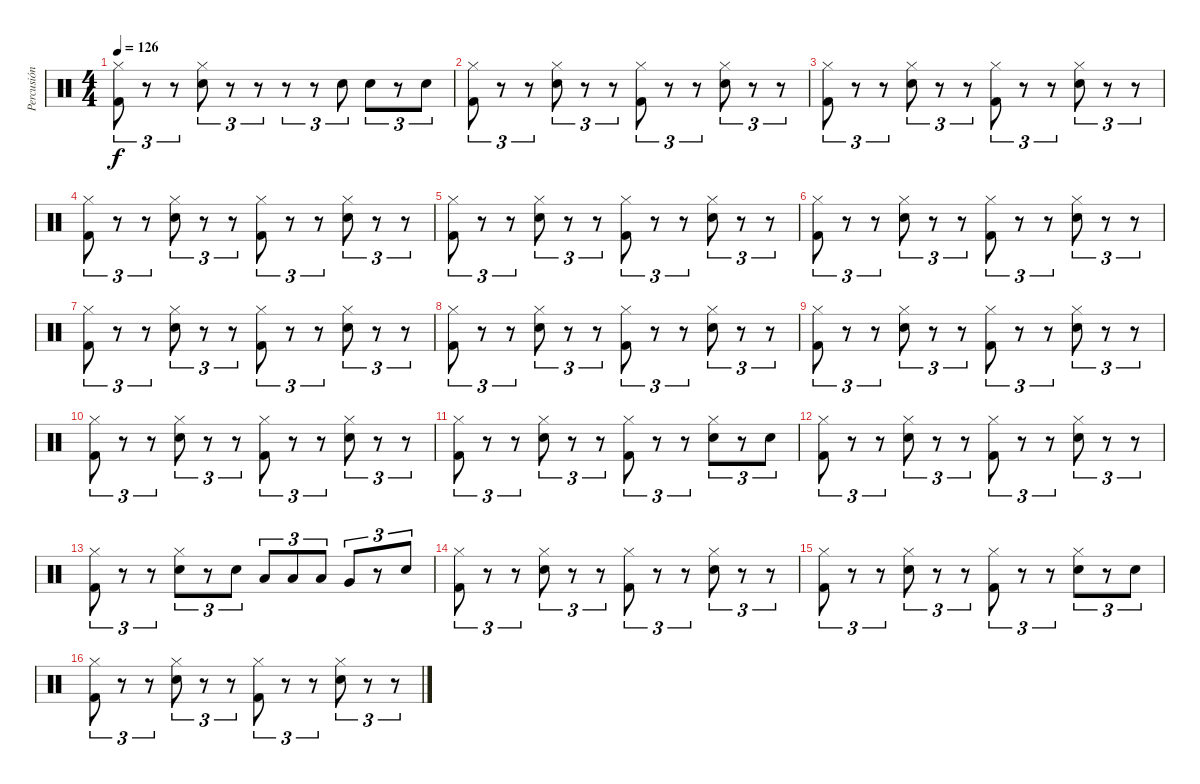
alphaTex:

\track ("Percusión" "Percusión") {instrument percussion}
\staff {score}
\articulation defaults
\ts (4 4)
\tempo 126
\clef neutral
\ks c
("Hi-Hat (closed)" "Kick (hit) 2").8{tu (3 2) dy f} r.8{tu (3 2)} r.8{tu (3 2)} ("Hi-Hat (closed)" "Electric Snare (hit)").8{tu (3 2)} r.8{tu (3 2)} r.8{tu (3 2)} r.8{tu (3 2)} r.8{tu (3 2)} "Electric Snare (hit)".8{tu (3 2)} "Electric Snare (hit)".8{tu (3 2)} r.8{tu (3 2)} "Electric Snare (hit)".8{tu (3 2)} |
("Hi-Hat (closed)" "Kick (hit) 2").8{tu (3 2)} r.8{tu (3 2)} r.8{tu (3 2)} ("Hi-Hat (closed)" "Electric Snare (hit)").8{tu (3 2)} r.8{tu (3 2)} r.8{tu (3 2)} ("Hi-Hat (closed)" "Kick (hit) 2").8{tu (3 2)} r.8{tu (3 2)} r.8{tu (3 2)} ("Hi-Hat (closed)" "Electric Snare (hit)").8{tu (3 2)} r.8{tu (3 2)} r.8{tu (3 2)} |
("Hi-Hat (closed)" "Kick (hit) 2").8{tu (3 2)} r.8{tu (3 2)} r.8{tu (3 2)} ("Hi-Hat (closed)" "Electric Snare (hit)").8{tu (3 2)} r.8{tu (3 2)} r.8{tu (3 2)} ("Hi-Hat (closed)" "Kick (hit) 2").8{tu (3 2)} r.8{tu (3 2)} r.8{tu (3 2)} ("Hi-Hat (closed)" "Electric Snare (hit)").8{tu (3 2)} r.8{tu (3 2)} r.8{tu (3 2)} |
("Hi-Hat (closed)" "Kick (hit) 2").8{tu (3 2)} r.8{tu (3 2)} r.8{tu (3 2)} ("Hi-Hat (closed)" "Electric Snare (hit)").8{tu (3 2)} r.8{tu (3 2)} r.8{tu (3 2)} ("Hi-Hat (closed)" "Kick (hit) 2").8{tu (3 2)} r.8{tu (3 2)} r.8{tu (3 2)} ("Hi-Hat (closed)" "Electric Snare (hit)").8{tu (3 2)} r.8{tu (3 2)} r.8{tu (3 2)} |
("Hi-Hat (closed)" "Kick (hit) 2").8{tu (3 2)} r.8{tu (3 2)} r.8{tu (3 2)} ("Hi-Hat (closed)" "Electric Snare (hit)").8{tu (3 2)} r.8{tu (3 2)} r.8{tu (3 2)} ("Hi-Hat (closed)" "Kick (hit) 2").8{tu (3 2)} r.8{tu (3 2)} r.8{tu (3 2)} ("Hi-Hat (closed)" "Electric Snare (hit)").8{tu (3 2)} r.8{tu (3 2)} r.8{tu (3 2)} |
("Hi-Hat (closed)" "Kick (hit) 2").8{tu (3 2)} r.8{tu (3 2)} r.8{tu (3 2)} ("Hi-Hat (closed)" "Electric Snare (hit)").8{tu (3 2)} r.8{tu (3 2)} r.8{tu (3 2)} ("Hi-Hat (closed)" "Kick (hit) 2").8{tu (3 2)} r.8{tu (3 2)} r.8{tu (3 2)} ("Hi-Hat (closed)" "Electric Snare (hit)").8{tu (3 2)} r.8{tu (3 2)} r.8{tu (3 2)} |
("Hi-Hat (closed)" "Kick (hit) 2").8{tu (3 2)} r.8{tu (3 2)} r.8{tu (3 2)} ("Hi-Hat (closed)" "Electric Snare (hit)").8{tu (3 2)} r.8{tu (3 2)} r.8{tu (3 2)} ("Hi-Hat (closed)" "Kick (hit) 2").8{tu (3 2)} r.8{tu (3 2)} r.8{tu (3 2)} ("Hi-Hat (closed)" "Electric Snare (hit)").8{tu (3 2)} r.8{tu (3 2)} r.8{tu (3 2)} |
("Hi-Hat (closed)" "Kick (hit) 2").8{tu (3 2)} r.8{tu (3 2)} r.8{tu (3 2)} ("Hi-Hat (closed)" "Electric Snare (hit)").8{tu (3 2)} r.8{tu (3 2)} r.8{tu (3 2)} ("Hi-Hat (closed)" "Kick (hit) 2").8{tu (3 2)} r.8{tu (3 2)} r.8{tu (3 2)} ("Hi-Hat (closed)" "Electric Snare (hit)").8{tu (3 2)} r.8{tu (3 2)} r.8{tu (3 2)} |
("Hi-Hat (closed)" "Kick (hit) 2").8{tu (3 2)} r.8{tu (3 2)} r.8{tu (3 2)} ("Hi-Hat (closed)" "Electric Snare (hit)").8{tu (3 2)} r.8{tu (3 2)} r.8{tu (3 2)} ("Hi-Hat (closed)" "Kick (hit) 2").8{tu (3 2)} r.8{tu (3 2)} r.8{tu (3 2)} ("Hi-Hat (closed)" "Electric Snare (hit)").8{tu (3 2)} r.8{tu (3 2)} r.8{tu (3 2)} |
("Hi-Hat (closed)" "Kick (hit) 2").8{tu (3 2)} r.8{tu (3 2)} r.8{tu (3 2)} ("Hi-Hat (closed)" "Electric Snare (hit)").8{tu (3 2)} r.8{tu (3 2)} r.8{tu (3 2)} ("Hi-Hat (closed)" "Kick (hit) 2").8{tu (3 2)} r.8{tu (3 2)} r.8{tu (3 2)} ("Hi-Hat (closed)" "Electric Snare (hit)").8{tu (3 2)} r.8{tu (3 2)} r.8{tu (3 2)} |
("Hi-Hat (closed)" "Kick (hit) 2").8{tu (3 2)} r.8{tu (3 2)} r.8{tu (3 2)} ("Hi-Hat (closed)" "Electric Snare (hit)").8{tu (3 2)} r.8{tu (3 2)} r.8{tu (3 2)} ("Hi-Hat (closed)" "Kick (hit) 2").8{tu (3 2)} r.8{tu (3 2)} r.8{tu (3 2)} ("Hi-Hat (closed)" "Electric Snare (hit)").8{tu (3 2)} r.8{tu (3 2)} "Electric Snare (hit)".8{tu (3 2)} |
("Hi-Hat (closed)" "Kick (hit) 2").8{tu (3 2)} r.8{tu (3 2)} r.8{tu (3 2)} ("Hi-Hat (closed)" "Electric Snare (hit)").8{tu (3 2)} r.8{tu (3 2)} r.8{tu (3 2)} ("Hi-Hat (closed)" "Kick (hit) 2").8{tu (3 2)} r.8{tu (3 2)} r.8{tu (3 2)} ("Hi-Hat (closed)" "Electric Snare (hit)").8{tu (3 2)} r.8{tu (3 2)} r.8{tu (3 2)} |
("Hi-Hat (closed)" "Kick (hit) 2").8{tu (3 2)} r.8{tu (3 2)} r.8{tu (3 2)} ("Hi-Hat (closed)" "Electric Snare (hit)").8{tu (3 2)} r.8{tu (3 2)} "Electric Snare (hit)".8{tu (3 2)} "Low Tom (hit)".8{tu (3 2)} "Low Tom (hit)".8{tu (3 2)} "Low Tom (hit)".8{tu (3 2)} "Very Low Tom (hit)".8{tu (3 2)} r.8{tu (3 2)} "Electric Snare (hit)".8{tu (3 2)} |
("Hi-Hat (closed)" "Kick (hit) 2").8{tu (3 2)} r.8{tu (3 2)} r.8{tu (3 2)} ("Hi-Hat (closed)" "Electric Snare (hit)").8{tu (3 2)} r.8{tu (3 2)} r.8{tu (3 2)} ("Hi-Hat (closed)" "Kick (hit) 2").8{tu (3 2)} r.8{tu (3 2)} r.8{tu (3 2)} ("Hi-Hat (closed)" "Electric Snare (hit)").8{tu (3 2)} r.8{tu (3 2)} r.8{tu (3 2)} |
("Hi-Hat (closed)" "Kick (hit) 2").8{tu (3 2)} r.8{tu (3 2)} r.8{tu (3 2)} ("Hi-Hat (closed)" "Electric Snare (hit)").8{tu (3 2)} r.8{tu (3 2)} r.8{tu (3 2)} ("Hi-Hat (closed)" "Kick (hit) 2").8{tu (3 2)} r.8{tu (3 2)} r.8{tu (3 2)} ("Hi-Hat (closed)" "Electric Snare (hit)").8{tu (3 2)} r.8{tu (3 2)} "Electric Snare (hit)".8{tu (3 2)} |
("Hi-Hat (closed)" "Kick (hit) 2").8{tu (3 2)} r.8{tu (3 2)} r.8{tu (3 2)} ("Hi-Hat (closed)" "Electric Snare (hit)").8{tu (3 2)} r.8{tu (3 2)} r.8{tu (3 2)} ("Hi-Hat (closed)" "Kick (hit) 2").8{tu (3 2)} r.8{tu (3 2)} r.8{tu (3 2)} ("Hi-Hat (closed)" "Electric Snare (hit)").8{tu (3 2)} r.8{tu (3 2)} r.8{tu (3 2)}
